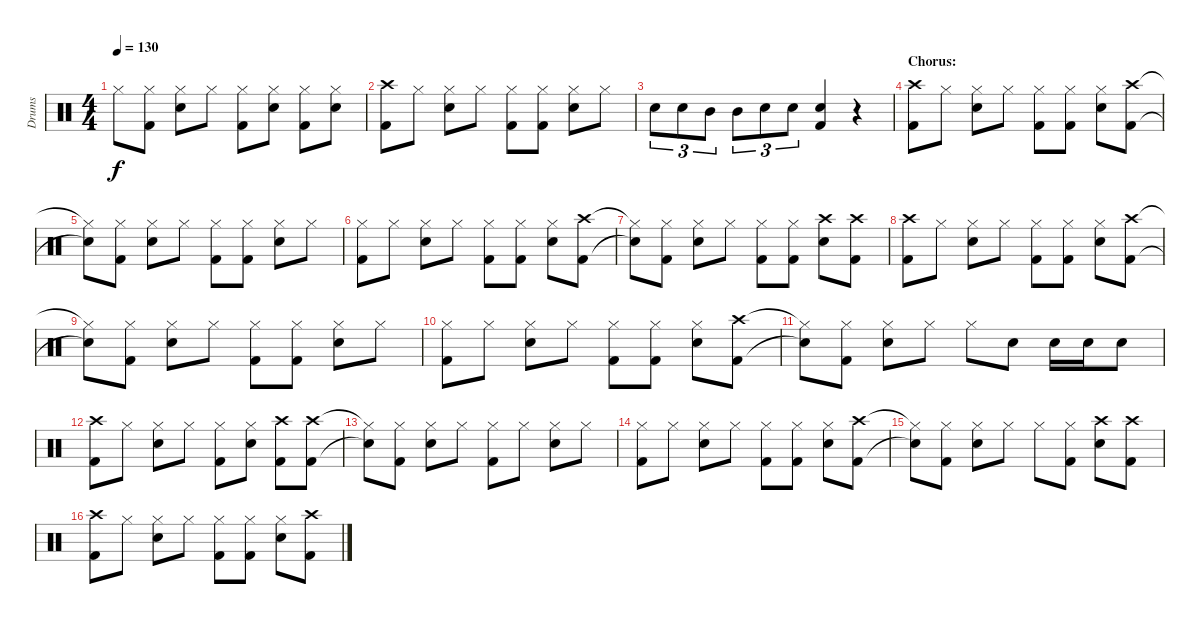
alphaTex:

\track ("Drums" "Drums") {instrument percussion}
\staff {score}
\articulation defaults
\ts (4 4)
\tempo 130
\clef neutral
\ks c "Hi-Hat (closed)".8{dy f}
("Hi-Hat (closed)" "Kick (hit) 2").8 ("Hi-Hat (closed)" "Electric Snare (hit)").8 "Hi-Hat (closed)".8 ("Hi-Hat (closed)" "Kick (hit) 2").8 ("Hi-Hat (closed)" "Electric Snare (hit)").8 ("Hi-Hat (closed)" "Kick (hit) 2").8 ("Hi-Hat (closed)" "Electric Snare (hit)").8 |
("Crash high (hit)" "Kick (hit) 2").8 "Hi-Hat (closed)".8 ("Hi-Hat (closed)" "Electric Snare (hit)").8 "Hi-Hat (closed)".8 ("Hi-Hat (closed)" "Kick (hit) 2").8 ("Hi-Hat (closed)" "Kick (hit) 2").8 ("Hi-Hat (closed)" "Electric Snare (hit)").8 "Hi-Hat (closed)".8 |
"Electric Snare (hit)".8{tu (3 2)} "Electric Snare (hit)".8{tu (3 2)} "Mid Tom (hit)".8{tu (3 2)} "Mid Tom (hit)".8{tu (3 2)} "Electric Snare (hit)".8{tu (3 2)} "Electric Snare (hit)".8{tu (3 2)} ("Electric Snare (hit)" "Kick (hit) 2").4 r.4 |
\section ("" "Chorus:")
("Crash high (hit)" "Kick (hit) 2").8 "Hi-Hat (closed)".8 ("Hi-Hat (closed)" "Electric Snare (hit)").8 "Hi-Hat (closed)".8 ("Hi-Hat (closed)" "Kick (hit) 2").8 ("Hi-Hat (closed)" "Kick (hit) 2").8 ("Hi-Hat (closed)" "Electric Snare (hit)").8 ("Crash high (hit)" "Kick (hit) 2").8 |
("Hi-Hat (closed)"{t} "Snare (hit)"{t}).8 ("Hi-Hat (closed)" "Kick (hit) 2").8 ("Hi-Hat (closed)" "Electric Snare (hit)").8 "Hi-Hat (closed)".8 ("Hi-Hat (closed)" "Kick (hit) 2").8 ("Hi-Hat (closed)" "Kick (hit) 2").8 ("Hi-Hat (closed)" "Electric Snare (hit)").8 "Hi-Hat (closed)".8 |
("Hi-Hat (closed)" "Kick (hit) 2").8 "Hi-Hat (closed)".8 ("Hi-Hat (closed)" "Electric Snare (hit)").8 "Hi-Hat (closed)".8 ("Hi-Hat (closed)" "Kick (hit) 2").8 ("Hi-Hat (closed)" "Kick (hit) 2").8 ("Hi-Hat (closed)" "Electric Snare (hit)").8 ("Crash high (hit)" "Kick (hit) 2").8 |
("Hi-Hat (closed)"{t} "Snare (hit)"{t}).8 ("Hi-Hat (closed)" "Kick (hit) 2").8 ("Hi-Hat (closed)" "Electric Snare (hit)").8 "Hi-Hat (closed)".8 ("Hi-Hat (closed)" "Kick (hit) 2").8 ("Hi-Hat (closed)" "Kick (hit) 2").8 ("Crash high (hit)" "Electric Snare (hit)").8 ("Crash high (hit)" "Kick (hit) 2").8 |
("Crash high (hit)" "Kick (hit) 2").8 "Hi-Hat (closed)".8 ("Hi-Hat (closed)" "Electric Snare (hit)").8 "Hi-Hat (closed)".8 ("Hi-Hat (closed)" "Kick (hit) 2").8 ("Hi-Hat (closed)" "Kick (hit) 2").8 ("Hi-Hat (closed)" "Electric Snare (hit)").8 ("Crash high (hit)" "Kick (hit) 2").8 |
("Hi-Hat (closed)"{t} "Snare (hit)"{t}).8 ("Hi-Hat (closed)" "Kick (hit) 2").8 ("Hi-Hat (closed)" "Electric Snare (hit)").8 "Hi-Hat (closed)".8 ("Hi-Hat (closed)" "Kick (hit) 2").8 ("Hi-Hat (closed)" "Kick (hit) 2").8 ("Hi-Hat (closed)" "Electric Snare (hit)").8 "Hi-Hat (closed)".8 |
("Hi-Hat (closed)" "Kick (hit) 2").8 "Hi-Hat (closed)".8 ("Hi-Hat (closed)" "Electric Snare (hit)").8 "Hi-Hat (closed)".8 ("Hi-Hat (closed)" "Kick (hit) 2").8 ("Hi-Hat (closed)" "Kick (hit) 2").8 ("Hi-Hat (closed)" "Electric Snare (hit)").8 ("Crash high (hit)" "Kick (hit) 2").8 |
("Hi-Hat (closed)"{t} "Snare (hit)"{t}).8 ("Hi-Hat (closed)" "Kick (hit) 2").8 ("Hi-Hat (closed)" "Electric Snare (hit)").8 "Hi-Hat (closed)".8 "Hi-Hat (closed)".8 "Electric Snare (hit)".8 "Electric Snare (hit)".16 "Electric Snare (hit)".16 "Electric Snare (hit)".8 |
("Crash high (hit)" "Kick (hit) 2").8 "Hi-Hat (closed)".8 ("Hi-Hat (closed)" "Electric Snare (hit)").8 "Hi-Hat (closed)".8 ("Hi-Hat (closed)" "Kick (hit) 2").8 ("Hi-Hat (closed)" "Electric Snare (hit)").8 ("Crash high (hit)" "Kick (hit) 2").8 ("Crash high (hit)" "Kick (hit) 2").8 |
("Hi-Hat (closed)"{t} "Snare (hit)"{t}).8 ("Hi-Hat (closed)" "Kick (hit) 2").8 ("Hi-Hat (closed)" "Electric Snare (hit)").8 "Hi-Hat (closed)".8 ("Hi-Hat (closed)" "Kick (hit) 2").8 "Hi-Hat (closed)".8 ("Hi-Hat (closed)" "Electric Snare (hit)").8 "Hi-Hat (closed)".8 |
("Hi-Hat (closed)" "Kick (hit) 2").8 "Hi-Hat (closed)".8 ("Hi-Hat (closed)" "Electric Snare (hit)").8 "Hi-Hat (closed)".8 ("Hi-Hat (closed)" "Kick (hit) 2").8 ("Hi-Hat (closed)" "Kick (hit) 2").8 ("Hi-Hat (closed)" "Electric Snare (hit)").8 ("Crash high (hit)" "Kick (hit) 2").8 |
("Hi-Hat (closed)"{t} "Snare (hit)"{t}).8 ("Hi-Hat (closed)" "Kick (hit) 2").8 ("Hi-Hat (closed)" "Electric Snare (hit)").8 "Hi-Hat (closed)".8 "Hi-Hat (closed)".8 ("Hi-Hat (closed)" "Kick (hit) 2").8 ("Crash high (hit)" "Electric Snare (hit)").8 ("Crash high (hit)" "Kick (hit) 2").8 |
("Crash high (hit)" "Kick (hit) 2").8 "Hi-Hat (closed)".8 ("Hi-Hat (closed)" "Electric Snare (hit)").8 "Hi-Hat (closed)".8 ("Hi-Hat (closed)" "Kick (hit) 2").8 ("Hi-Hat (closed)" "Kick (hit) 2").8 ("Hi-Hat (closed)" "Electric Snare (hit)").8 ("Crash high (hit)" "Kick (hit) 2").8
